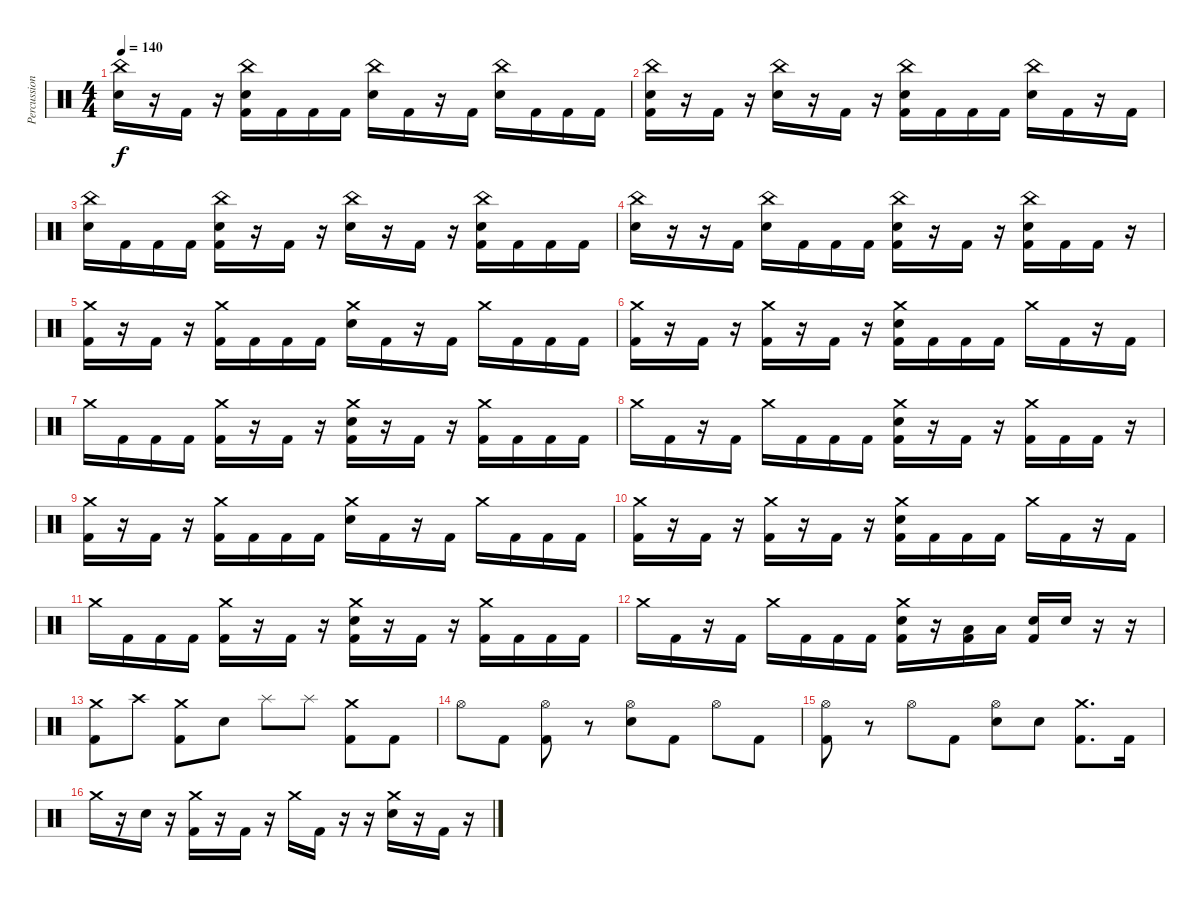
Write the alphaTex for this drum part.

\track ("Percussion" "Percussion") {instrument percussion}
\staff {score}
\articulation defaults
\ts (4 4)
\tempo 140
\clef neutral
\ks c
("China (hit)" "Electric Snare (hit)").16{dy f} r.16 "Kick (hit) 2".16 r.16 ("China (hit)" "Electric Snare (hit)" "Kick (hit) 2").16 "Kick (hit) 2".16 "Kick (hit) 2".16 "Kick (hit) 2".16 ("China (hit)" "Electric Snare (hit)").16 "Kick (hit) 2".16 r.16 "Kick (hit) 2".16 ("China (hit)" "Electric Snare (hit)").16 "Kick (hit) 2".16 "Kick (hit) 2".16 "Kick (hit) 2".16 |
("China (hit)" "Electric Snare (hit)" "Kick (hit) 2").16 r.16 "Kick (hit) 2".16 r.16 ("China (hit)" "Electric Snare (hit)").16 r.16 "Kick (hit) 2".16 r.16 ("China (hit)" "Electric Snare (hit)" "Kick (hit) 2").16 "Kick (hit) 2".16 "Kick (hit) 2".16 "Kick (hit) 2".16 ("China (hit)" "Electric Snare (hit)").16 "Kick (hit) 2".16 r.16 "Kick (hit) 2".16 |
("China (hit)" "Electric Snare (hit)").16 "Kick (hit) 2".16 "Kick (hit) 2".16 "Kick (hit) 2".16 ("China (hit)" "Electric Snare (hit)" "Kick (hit) 2").16 r.16 "Kick (hit) 2".16 r.16 ("China (hit)" "Electric Snare (hit)").16 r.16 "Kick (hit) 2".16 r.16 ("China (hit)" "Electric Snare (hit)" "Kick (hit) 2").16 "Kick (hit) 2".16 "Kick (hit) 2".16 "Kick (hit) 2".16 |
("China (hit)" "Electric Snare (hit)").16 r.16 r.16 "Kick (hit) 2".16 ("China (hit)" "Electric Snare (hit)").16 "Kick (hit) 2".16 "Kick (hit) 2".16 "Kick (hit) 2".16 ("China (hit)" "Electric Snare (hit)" "Kick (hit) 2").16 r.16 "Kick (hit) 2".16 r.16 ("China (hit)" "Electric Snare (hit)" "Kick (hit) 2").16 "Kick (hit) 2".16 "Kick (hit) 2".16 r.16 |
("Crash medium (hit)" "Kick (hit) 2").16 r.16 "Kick (hit) 2".16 r.16 ("Crash medium (hit)" "Kick (hit) 2").16 "Kick (hit) 2".16 "Kick (hit) 2".16 "Kick (hit) 2".16 ("Crash medium (hit)" "Electric Snare (hit)").16 "Kick (hit) 2".16 r.16 "Kick (hit) 2".16 "Crash medium (hit)".16 "Kick (hit) 2".16 "Kick (hit) 2".16 "Kick (hit) 2".16 |
("Crash medium (hit)" "Kick (hit) 2").16 r.16 "Kick (hit) 2".16 r.16 ("Crash medium (hit)" "Kick (hit) 2").16 r.16 "Kick (hit) 2".16 r.16 ("Crash medium (hit)" "Electric Snare (hit)" "Kick (hit) 2").16 "Kick (hit) 2".16 "Kick (hit) 2".16 "Kick (hit) 2".16 "Crash medium (hit)".16 "Kick (hit) 2".16 r.16 "Kick (hit) 2".16 |
"Crash medium (hit)".16 "Kick (hit) 2".16 "Kick (hit) 2".16 "Kick (hit) 2".16 ("Crash medium (hit)" "Kick (hit) 2").16 r.16 "Kick (hit) 2".16 r.16 ("Crash medium (hit)" "Electric Snare (hit)" "Kick (hit) 2").16 r.16 "Kick (hit) 2".16 r.16 ("Crash medium (hit)" "Kick (hit) 2").16 "Kick (hit) 2".16 "Kick (hit) 2".16 "Kick (hit) 2".16 |
"Crash medium (hit)".16 "Kick (hit) 2".16 r.16 "Kick (hit) 2".16 "Crash medium (hit)".16 "Kick (hit) 2".16 "Kick (hit) 2".16 "Kick (hit) 2".16 ("Crash medium (hit)" "Electric Snare (hit)" "Kick (hit) 2").16 r.16 "Kick (hit) 2".16 r.16 ("Crash medium (hit)" "Kick (hit) 2").16 "Kick (hit) 2".16 "Kick (hit) 2".16 r.16 |
("Crash medium (hit)" "Kick (hit) 2").16 r.16 "Kick (hit) 2".16 r.16 ("Crash medium (hit)" "Kick (hit) 2").16 "Kick (hit) 2".16 "Kick (hit) 2".16 "Kick (hit) 2".16 ("Crash medium (hit)" "Electric Snare (hit)").16 "Kick (hit) 2".16 r.16 "Kick (hit) 2".16 "Crash medium (hit)".16 "Kick (hit) 2".16 "Kick (hit) 2".16 "Kick (hit) 2".16 |
("Crash medium (hit)" "Kick (hit) 2").16 r.16 "Kick (hit) 2".16 r.16 ("Crash medium (hit)" "Kick (hit) 2").16 r.16 "Kick (hit) 2".16 r.16 ("Crash medium (hit)" "Electric Snare (hit)" "Kick (hit) 2").16 "Kick (hit) 2".16 "Kick (hit) 2".16 "Kick (hit) 2".16 "Crash medium (hit)".16 "Kick (hit) 2".16 r.16 "Kick (hit) 2".16 |
"Crash medium (hit)".16 "Kick (hit) 2".16 "Kick (hit) 2".16 "Kick (hit) 2".16 ("Crash medium (hit)" "Kick (hit) 2").16 r.16 "Kick (hit) 2".16 r.16 ("Crash medium (hit)" "Electric Snare (hit)" "Kick (hit) 2").16 r.16 "Kick (hit) 2".16 r.16 ("Crash medium (hit)" "Kick (hit) 2").16 "Kick (hit) 2".16 "Kick (hit) 2".16 "Kick (hit) 2".16 |
"Crash medium (hit)".16 "Kick (hit) 2".16 r.16 "Kick (hit) 2".16 "Crash medium (hit)".16 "Kick (hit) 2".16 "Kick (hit) 2".16 "Kick (hit) 2".16 ("Crash medium (hit)" "Electric Snare (hit)" "Kick (hit) 2").16 r.16 ("Low Tom (hit)" "Kick (hit) 2").16 "Low Tom (hit)".16 ("Electric Snare (hit)" "Kick (hit) 2").16 "Electric Snare (hit)".16 r.16 r.16 |
("Crash medium (hit)" "Kick (hit) 2").8 "Crash high (hit)".8 ("Crash medium (hit)" "Kick (hit) 2").8 "Electric Snare (hit)".8 "Splash (hit)".8 "Splash (hit)".8 ("Crash medium (hit)" "Kick (hit) 2").8 "Kick (hit) 2".8 |
"Hi-Hat (open)".8 "Kick (hit) 2".8 ("Hi-Hat (open)" "Kick (hit) 2").8 r.8 ("Hi-Hat (open)" "Electric Snare (hit)").8 "Kick (hit) 2".8 "Hi-Hat (open)".8 "Kick (hit) 2".8 |
("Hi-Hat (open)" "Kick (hit) 2").8 r.8 "Hi-Hat (open)".8 "Kick (hit) 2".8 ("Hi-Hat (open)" "Electric Snare (hit)").8 "Electric Snare (hit)".8 ("Crash medium (hit)" "Kick (hit) 2").8{d} "Kick (hit) 2".16 |
"Crash medium (hit)".16 r.16 "Electric Snare (hit)".16 r.16 ("Crash medium (hit)" "Kick (hit) 2").16 r.16 "Kick (hit) 2".16 r.16 "Crash medium (hit)".16 "Kick (hit) 2".16 r.16 r.16 ("Crash medium (hit)" "Electric Snare (hit)").16 r.16 "Kick (hit) 2".16 r.16
